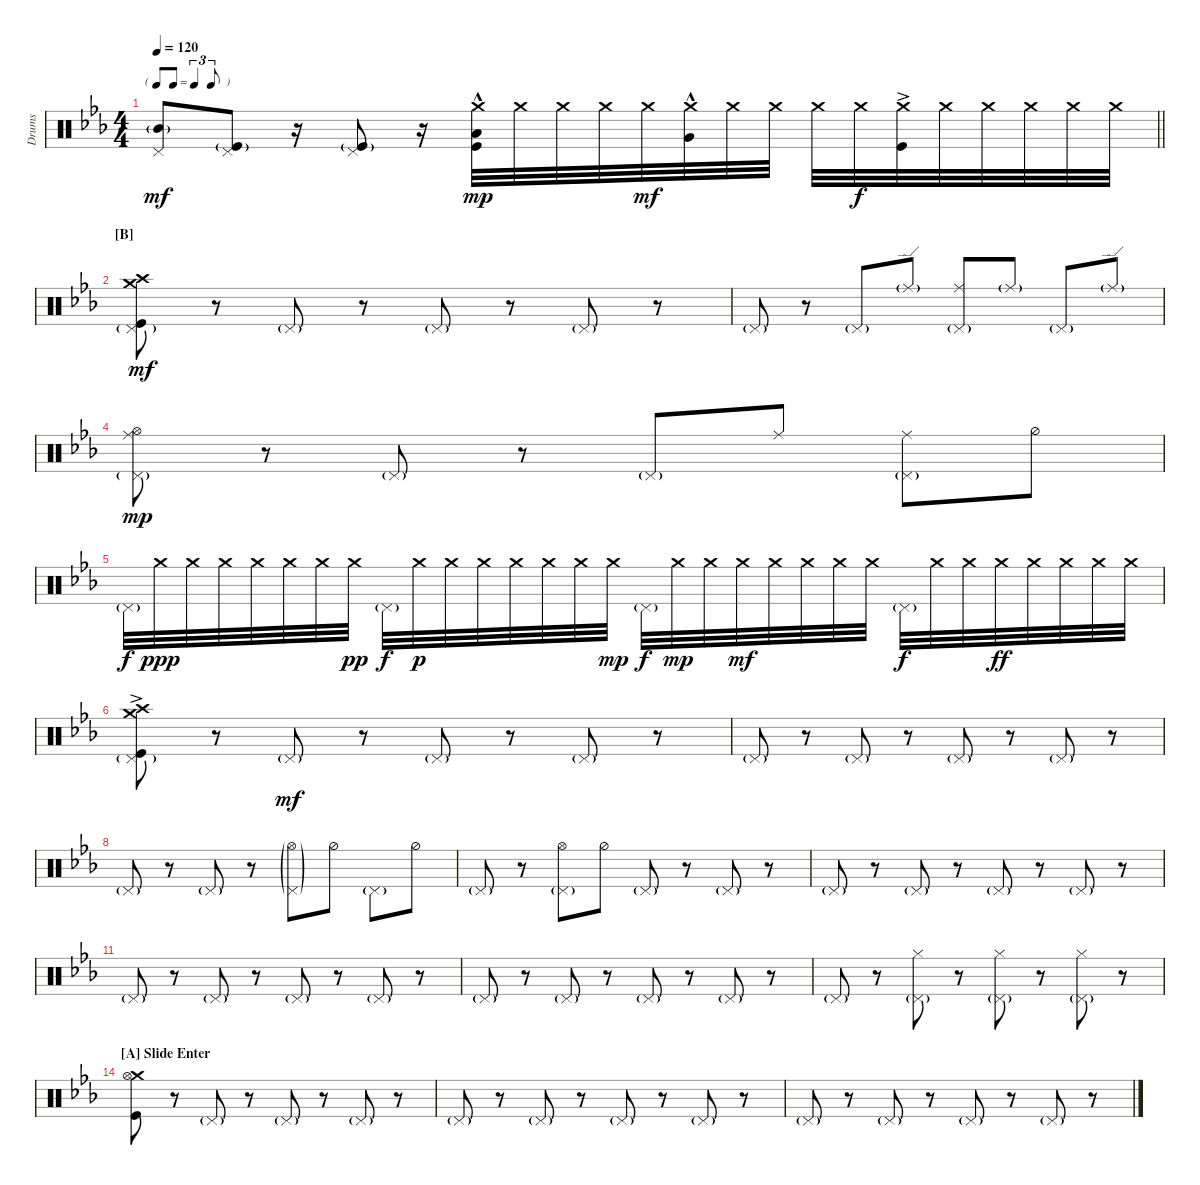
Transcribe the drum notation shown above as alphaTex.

\bracketExtendMode nobrackets
\otherSystemsTrackNameOrientation horizontal
\defaultBarNumberDisplay FirstOfSystem
\track ("Drumkit" "Drums") {instrument percussion}
\staff {score}
\articulation defaults
\ts (4 4)
\tf triplet8th
\tempo 120
\clef neutral
\barLineRight lightlight
\ks cminor
("Mid Tom (hit)"{g} "Pedal Hi-Hat (hit)").8{dy mf} ("Kick (hit)"{g} "Pedal Hi-Hat (hit)").8 r.16 ("Kick (hit)"{g} "Pedal Hi-Hat (hit)").8 r.16 ("Low Tom (hit)"{hac} "Crash medium (hit)" "Kick (hit)"{hac}).32{dy mp} "Crash medium (hit)".32 "Crash medium (hit)".32 "Crash medium (hit)".32 "Crash medium (hit)".32{dy mf} ("Very Low Tom (hit)"{hac} "Crash medium (hit)").32 "Crash medium (hit)".32 "Crash medium (hit)".32 "Crash medium (hit)".32 "Crash medium (hit)".32{dy f} ("Crash medium (hit)" "Kick (hit)"{ac}).32 "Crash medium (hit)".32 "Crash medium (hit)".32 "Crash medium (hit)".32 "Crash medium (hit)".32 "Crash medium (hit)".32 |
\section ("B" "")
("Pedal Hi-Hat (hit)"{g} "Kick (hit)" "Crash medium (hit)" "Crash high (hit)").8{dy mf} r.8 "Pedal Hi-Hat (hit)"{g}.8 r.8 "Pedal Hi-Hat (hit)"{g}.8 r.8 "Pedal Hi-Hat (hit)"{g}.8 r.8 |
"Pedal Hi-Hat (hit)"{g}.8 r.8 "Pedal Hi-Hat (hit)"{g}.8 "Ride (edge)"{g}.8 ("Pedal Hi-Hat (hit)"{g} "Ride (middle)").8 "Ride (middle)"{g}.8 "Pedal Hi-Hat (hit)"{g}.8 "Ride (edge)"{g}.8 |
("Pedal Hi-Hat (hit)"{g} "Hi-Hat (open)" "Ride (middle)").8{dy mp} r.8 "Pedal Hi-Hat (hit)"{g}.8 r.8 "Pedal Hi-Hat (hit)"{g}.8 "Ride (middle)".8 ("Pedal Hi-Hat (hit)"{g} "Ride (middle)").8 "Hi-Hat (half)".8 |
"Pedal Hi-Hat (hit)"{g}.32{dy f} "Crash medium (hit)".32{dy ppp} "Crash medium (hit)".32 "Crash medium (hit)".32 "Crash medium (hit)".32 "Crash medium (hit)".32 "Crash medium (hit)".32 "Crash medium (hit)".32{dy pp} "Pedal Hi-Hat (hit)"{g}.32{dy f} "Crash medium (hit)".32{dy p} "Crash medium (hit)".32 "Crash medium (hit)".32 "Crash medium (hit)".32 "Crash medium (hit)".32 "Crash medium (hit)".32 "Crash medium (hit)".32{dy mp} "Pedal Hi-Hat (hit)"{g}.32{dy f} "Crash medium (hit)".32{dy mp} "Crash medium (hit)".32 "Crash medium (hit)".32{dy mf} "Crash medium (hit)".32 "Crash medium (hit)".32 "Crash medium (hit)".32 "Crash medium (hit)".32 "Pedal Hi-Hat (hit)"{g}.32{dy f} "Crash medium (hit)".32 "Crash medium (hit)".32 "Crash medium (hit)".32{dy ff} "Crash medium (hit)".32 "Crash medium (hit)".32 "Crash medium (hit)".32 "Crash medium (hit)".32 |
("Pedal Hi-Hat (hit)"{g} "Kick (hit)" "Crash medium (hit)" "Crash high (hit)"{ac}).8 r.8 "Pedal Hi-Hat (hit)"{g}.8{dy mf} r.8 "Pedal Hi-Hat (hit)"{g}.8 r.8 "Pedal Hi-Hat (hit)"{g}.8 r.8 |
"Pedal Hi-Hat (hit)"{g}.8 r.8 "Pedal Hi-Hat (hit)"{g}.8 r.8 "Pedal Hi-Hat (hit)"{g}.8 r.8 "Pedal Hi-Hat (hit)"{g}.8 r.8 |
"Pedal Hi-Hat (hit)"{g}.8 r.8 "Pedal Hi-Hat (hit)"{g}.8 r.8 ("Pedal Hi-Hat (hit)"{g} "Hi-Hat (open)"{g}).8 "Hi-Hat (half)".8 "Pedal Hi-Hat (hit)"{g}.8 "Hi-Hat (half)".8 |
"Pedal Hi-Hat (hit)"{g}.8 r.8 ("Pedal Hi-Hat (hit)"{g} "Hi-Hat (open)").8 "Hi-Hat (half)".8 "Pedal Hi-Hat (hit)"{g}.8 r.8 "Pedal Hi-Hat (hit)"{g}.8 r.8 |
"Pedal Hi-Hat (hit)"{g}.8 r.8 "Pedal Hi-Hat (hit)"{g}.8 r.8 "Pedal Hi-Hat (hit)"{g}.8 r.8 "Pedal Hi-Hat (hit)"{g}.8 r.8 |
"Pedal Hi-Hat (hit)"{g}.8 r.8 "Pedal Hi-Hat (hit)"{g}.8 r.8 "Pedal Hi-Hat (hit)"{g}.8 r.8 "Pedal Hi-Hat (hit)"{g}.8 r.8 |
"Pedal Hi-Hat (hit)"{g}.8 r.8 "Pedal Hi-Hat (hit)"{g}.8 r.8 "Pedal Hi-Hat (hit)"{g}.8 r.8 "Pedal Hi-Hat (hit)"{g}.8 r.8 |
"Pedal Hi-Hat (hit)"{g}.8 r.8 ("Pedal Hi-Hat (hit)"{g} "Hi-Hat (closed)").8 r.8 ("Pedal Hi-Hat (hit)"{g} "Hi-Hat (closed)").8 r.8 ("Pedal Hi-Hat (hit)"{g} "Hi-Hat (closed)").8 r.8 |
\section ("A" "Slide Enter")
("Crash medium (hit)" "Hi-Hat (open)" "Kick (hit)").8 r.8 "Pedal Hi-Hat (hit)"{g}.8 r.8 "Pedal Hi-Hat (hit)"{g}.8 r.8 "Pedal Hi-Hat (hit)"{g}.8 r.8 |
"Pedal Hi-Hat (hit)"{g}.8 r.8 "Pedal Hi-Hat (hit)"{g}.8 r.8 "Pedal Hi-Hat (hit)"{g}.8 r.8 "Pedal Hi-Hat (hit)"{g}.8 r.8 |
"Pedal Hi-Hat (hit)"{g}.8 r.8 "Pedal Hi-Hat (hit)"{g}.8 r.8 "Pedal Hi-Hat (hit)"{g}.8 r.8 "Pedal Hi-Hat (hit)"{g}.8 r.8
